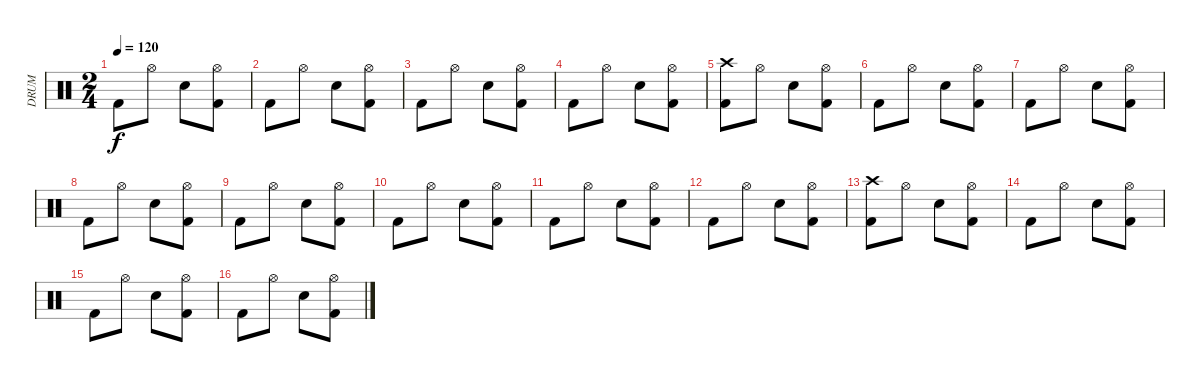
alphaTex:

\track ("DRUM" "DRUM") {instrument percussion}
\staff {score}
\articulation defaults
\ts (2 4)
\tempo 120
\clef neutral
\ks c "Kick (hit) 2".8{dy f} "Hi-Hat (open)".8 "Electric Snare (hit)".8
("Kick (hit) 2" "Hi-Hat (open)").8 |
"Kick (hit) 2".8 "Hi-Hat (open)".8 "Electric Snare (hit)".8 ("Kick (hit) 2" "Hi-Hat (open)").8 |
"Kick (hit) 2".8 "Hi-Hat (open)".8 "Electric Snare (hit)".8 ("Kick (hit) 2" "Hi-Hat (open)").8 |
"Kick (hit) 2".8 "Hi-Hat (open)".8 "Electric Snare (hit)".8 ("Kick (hit) 2" "Hi-Hat (open)").8 |
("Crash high (hit)" "Kick (hit) 2").8 "Hi-Hat (open)".8 "Electric Snare (hit)".8 ("Kick (hit) 2" "Hi-Hat (open)").8 |
"Kick (hit) 2".8 "Hi-Hat (open)".8 "Electric Snare (hit)".8 ("Kick (hit) 2" "Hi-Hat (open)").8 |
"Kick (hit) 2".8 "Hi-Hat (open)".8 "Electric Snare (hit)".8 ("Kick (hit) 2" "Hi-Hat (open)").8 |
"Kick (hit) 2".8 "Hi-Hat (open)".8 "Electric Snare (hit)".8 ("Kick (hit) 2" "Hi-Hat (open)").8 |
"Kick (hit) 2".8 "Hi-Hat (open)".8 "Electric Snare (hit)".8 ("Kick (hit) 2" "Hi-Hat (open)").8 |
"Kick (hit) 2".8 "Hi-Hat (open)".8 "Electric Snare (hit)".8 ("Kick (hit) 2" "Hi-Hat (open)").8 |
"Kick (hit) 2".8 "Hi-Hat (open)".8 "Electric Snare (hit)".8 ("Kick (hit) 2" "Hi-Hat (open)").8 |
"Kick (hit) 2".8 "Hi-Hat (open)".8 "Electric Snare (hit)".8 ("Kick (hit) 2" "Hi-Hat (open)").8 |
("Crash high (hit)" "Kick (hit) 2").8 "Hi-Hat (open)".8 "Electric Snare (hit)".8 ("Kick (hit) 2" "Hi-Hat (open)").8 |
"Kick (hit) 2".8 "Hi-Hat (open)".8 "Electric Snare (hit)".8 ("Kick (hit) 2" "Hi-Hat (open)").8 |
"Kick (hit) 2".8 "Hi-Hat (open)".8 "Electric Snare (hit)".8 ("Kick (hit) 2" "Hi-Hat (open)").8 |
"Kick (hit) 2".8 "Hi-Hat (open)".8 "Electric Snare (hit)".8 ("Kick (hit) 2" "Hi-Hat (open)").8
